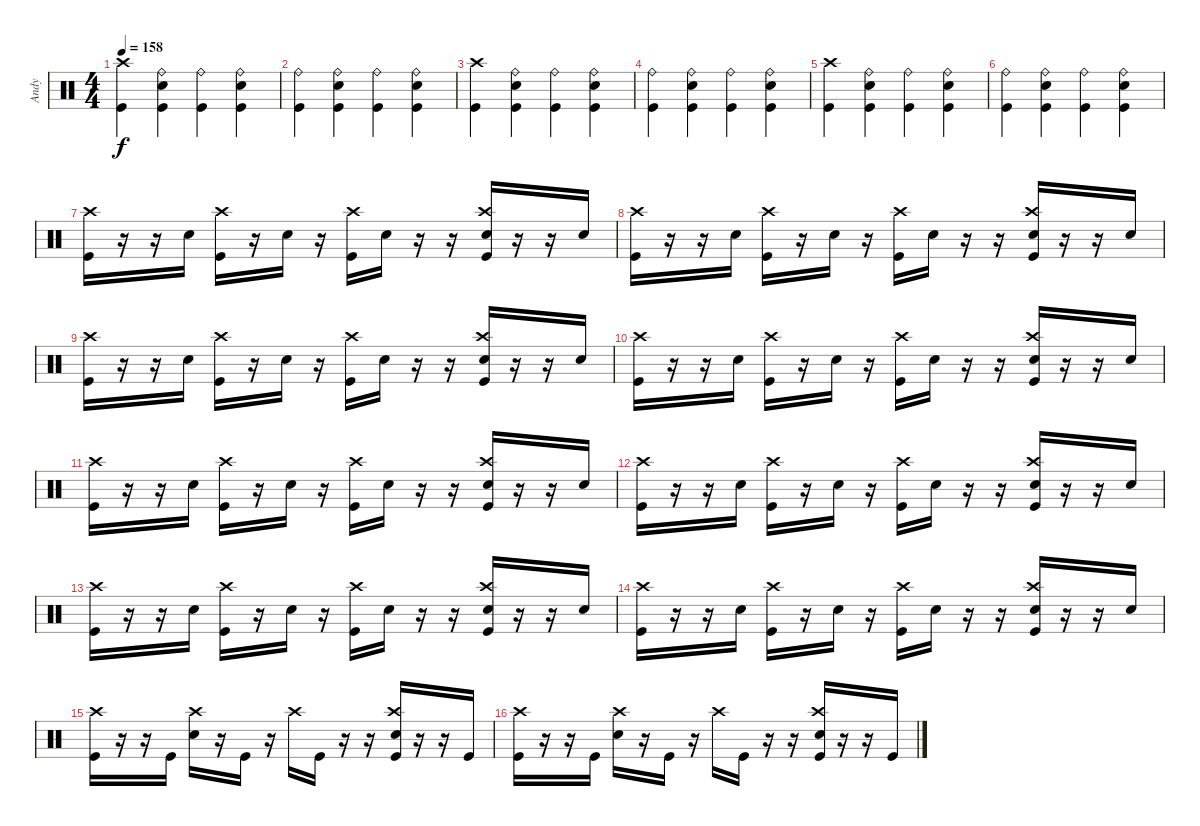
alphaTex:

\track ("Andy" "Andy") {instrument percussion}
\staff {score}
\articulation defaults
\ts (4 4)
\tempo 158
\clef neutral
\ks c
("Kick (hit)" "Crash high (hit)").4{dy f} ("Kick (hit)" "Snare (hit) 2" "Ride (bell)").4 ("Kick (hit)" "Ride (bell)").4 ("Kick (hit)" "Snare (hit) 2" "Ride (bell)").4 |
("Kick (hit)" "Ride (bell)").4 ("Kick (hit)" "Snare (hit) 2" "Ride (bell)").4 ("Kick (hit)" "Ride (bell)").4 ("Kick (hit)" "Snare (hit) 2" "Ride (bell)").4 |
("Kick (hit)" "Crash high (hit)").4 ("Kick (hit)" "Snare (hit) 2" "Ride (bell)").4 ("Kick (hit)" "Ride (bell)").4 ("Kick (hit)" "Snare (hit) 2" "Ride (bell)").4 |
("Kick (hit)" "Ride (bell)").4 ("Kick (hit)" "Snare (hit) 2" "Ride (bell)").4 ("Kick (hit)" "Ride (bell)").4 ("Kick (hit)" "Snare (hit) 2" "Ride (bell)").4 |
("Kick (hit)" "Crash high (hit)").4 ("Kick (hit)" "Snare (hit) 2" "Ride (bell)").4 ("Kick (hit)" "Ride (bell)").4 ("Kick (hit)" "Snare (hit) 2" "Ride (bell)").4 |
("Kick (hit)" "Ride (bell)").4 ("Kick (hit)" "Snare (hit) 2" "Ride (bell)").4 ("Kick (hit)" "Ride (bell)").4 ("Kick (hit)" "Snare (hit) 2" "Ride (bell)").4 |
("Kick (hit)" "Crash high (hit)").16 r.16 r.16 "Snare (hit) 2".16 ("Kick (hit)" "Crash high (hit)").16 r.16 "Snare (hit) 2".16 r.16 ("Kick (hit)" "Crash high (hit)").16 "Snare (hit) 2".16 r.16 r.16 ("Kick (hit)" "Crash high (hit)" "Snare (hit) 2").16 r.16 r.16 "Snare (hit) 2".16 |
("Kick (hit)" "Crash high (hit)").16 r.16 r.16 "Snare (hit) 2".16 ("Kick (hit)" "Crash high (hit)").16 r.16 "Snare (hit) 2".16 r.16 ("Kick (hit)" "Crash high (hit)").16 "Snare (hit) 2".16 r.16 r.16 ("Kick (hit)" "Crash high (hit)" "Snare (hit) 2").16 r.16 r.16 "Snare (hit) 2".16 |
("Kick (hit)" "Crash high (hit)").16 r.16 r.16 "Snare (hit) 2".16 ("Kick (hit)" "Crash high (hit)").16 r.16 "Snare (hit) 2".16 r.16 ("Kick (hit)" "Crash high (hit)").16 "Snare (hit) 2".16 r.16 r.16 ("Kick (hit)" "Crash high (hit)" "Snare (hit) 2").16 r.16 r.16 "Snare (hit) 2".16 |
("Kick (hit)" "Crash high (hit)").16 r.16 r.16 "Snare (hit) 2".16 ("Kick (hit)" "Crash high (hit)").16 r.16 "Snare (hit) 2".16 r.16 ("Kick (hit)" "Crash high (hit)").16 "Snare (hit) 2".16 r.16 r.16 ("Kick (hit)" "Crash high (hit)" "Snare (hit) 2").16 r.16 r.16 "Snare (hit) 2".16 |
("Kick (hit)" "Crash high (hit)").16 r.16 r.16 "Snare (hit) 2".16 ("Kick (hit)" "Crash high (hit)").16 r.16 "Snare (hit) 2".16 r.16 ("Kick (hit)" "Crash high (hit)").16 "Snare (hit) 2".16 r.16 r.16 ("Kick (hit)" "Crash high (hit)" "Snare (hit) 2").16 r.16 r.16 "Snare (hit) 2".16 |
("Kick (hit)" "Crash high (hit)").16 r.16 r.16 "Snare (hit) 2".16 ("Kick (hit)" "Crash high (hit)").16 r.16 "Snare (hit) 2".16 r.16 ("Kick (hit)" "Crash high (hit)").16 "Snare (hit) 2".16 r.16 r.16 ("Kick (hit)" "Crash high (hit)" "Snare (hit) 2").16 r.16 r.16 "Snare (hit) 2".16 |
("Kick (hit)" "Crash high (hit)").16 r.16 r.16 "Snare (hit) 2".16 ("Kick (hit)" "Crash high (hit)").16 r.16 "Snare (hit) 2".16 r.16 ("Kick (hit)" "Crash high (hit)").16 "Snare (hit) 2".16 r.16 r.16 ("Kick (hit)" "Crash high (hit)" "Snare (hit) 2").16 r.16 r.16 "Snare (hit) 2".16 |
("Kick (hit)" "Crash high (hit)").16 r.16 r.16 "Snare (hit) 2".16 ("Kick (hit)" "Crash high (hit)").16 r.16 "Snare (hit) 2".16 r.16 ("Kick (hit)" "Crash high (hit)").16 "Snare (hit) 2".16 r.16 r.16 ("Kick (hit)" "Crash high (hit)" "Snare (hit) 2").16 r.16 r.16 "Snare (hit) 2".16 |
("Crash high (hit)" "Kick (hit)").16 r.16 r.16 "Kick (hit)".16 ("Crash high (hit)" "Snare (hit) 2").16 r.16 "Kick (hit)".16 r.16 "Crash high (hit)".16 "Kick (hit)".16 r.16 r.16 ("Crash high (hit)" "Kick (hit)" "Snare (hit) 2").16 r.16 r.16 "Kick (hit)".16 |
("Crash high (hit)" "Kick (hit)").16 r.16 r.16 "Kick (hit)".16 ("Crash high (hit)" "Snare (hit) 2").16 r.16 "Kick (hit)".16 r.16 "Crash high (hit)".16 "Kick (hit)".16 r.16 r.16 ("Crash high (hit)" "Kick (hit)" "Snare (hit) 2").16 r.16 r.16 "Kick (hit)".16
